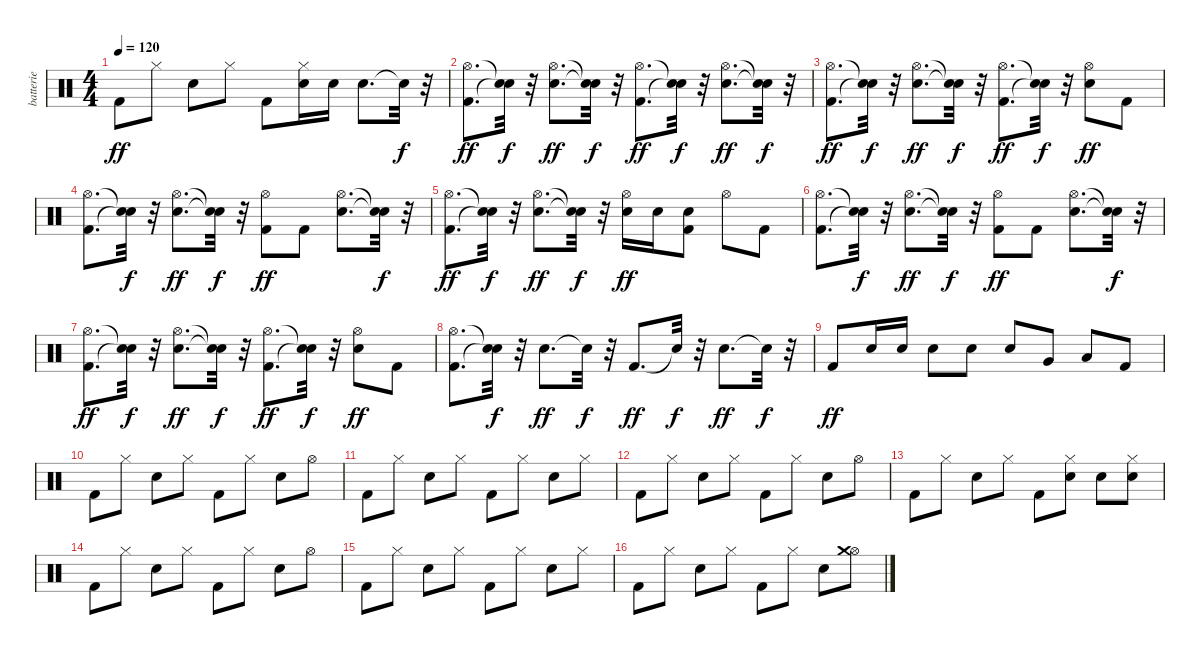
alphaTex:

\track ("batterie" "batterie") {instrument percussion}
\staff {score}
\articulation defaults
\ts (4 4)
\tempo 120
\clef neutral
\ks c "Kick (hit) 2".8{dy ff} "Hi-Hat (closed)".8 "Electric Snare (hit)".8 "Hi-Hat (closed)".8 "Kick (hit) 2".8
("Electric Snare (hit)" "Hi-Hat (closed)").16 "Electric Snare (hit)".16 "Electric Snare (hit)".8{d} "Snare (hit)"{t}.32{dy f} r.32 |
("Kick (hit) 2" "Hi-Hat (open)").8{d dy ff} ("Snare (hit)"{t} "Snare (hit)"{t}).32{dy f} r.32 ("Electric Snare (hit)" "Hi-Hat (open)").8{d dy ff} ("Snare (hit)"{t} "Snare (hit)"{t}).32{dy f} r.32 ("Kick (hit) 2" "Hi-Hat (open)").8{d dy ff} ("Snare (hit)"{t} "Snare (hit)"{t}).32{dy f} r.32 ("Electric Snare (hit)" "Hi-Hat (open)").8{d dy ff} ("Snare (hit)"{t} "Snare (hit)"{t}).32{dy f} r.32 |
("Kick (hit) 2" "Hi-Hat (open)").8{d dy ff} ("Snare (hit)"{t} "Snare (hit)"{t}).32{dy f} r.32 ("Electric Snare (hit)" "Hi-Hat (open)").8{d dy ff} ("Snare (hit)"{t} "Snare (hit)"{t}).32{dy f} r.32 ("Kick (hit) 2" "Hi-Hat (open)").8{d dy ff} ("Snare (hit)"{t} "Snare (hit)"{t}).32{dy f} r.32 ("Electric Snare (hit)" "Hi-Hat (open)").8{dy ff} "Kick (hit) 2".8 |
("Kick (hit) 2" "Hi-Hat (open)").8{d} ("Snare (hit)"{t} "Snare (hit)"{t}).32{dy f} r.32 ("Electric Snare (hit)" "Hi-Hat (open)").8{d dy ff} ("Snare (hit)"{t} "Snare (hit)"{t}).32{dy f} r.32 ("Kick (hit) 2" "Hi-Hat (open)").8{dy ff} "Kick (hit) 2".8 ("Electric Snare (hit)" "Hi-Hat (open)").8{d} ("Snare (hit)"{t} "Snare (hit)"{t}).32{dy f} r.32 |
("Kick (hit) 2" "Hi-Hat (open)").8{d dy ff} ("Snare (hit)"{t} "Snare (hit)"{t}).32{dy f} r.32 ("Electric Snare (hit)" "Hi-Hat (open)").8{d dy ff} ("Snare (hit)"{t} "Snare (hit)"{t}).32{dy f} r.32 ("Electric Snare (hit)" "Hi-Hat (open)").16{dy ff} "Electric Snare (hit)".16 ("Kick (hit) 2" "Electric Snare (hit)").8 "Hi-Hat (open)".8 "Kick (hit) 2".8 |
("Kick (hit) 2" "Hi-Hat (open)").8{d} ("Snare (hit)"{t} "Snare (hit)"{t}).32{dy f} r.32 ("Electric Snare (hit)" "Hi-Hat (open)").8{d dy ff} ("Snare (hit)"{t} "Snare (hit)"{t}).32{dy f} r.32 ("Kick (hit) 2" "Hi-Hat (open)").8{dy ff} "Kick (hit) 2".8 ("Electric Snare (hit)" "Hi-Hat (open)").8{d} ("Snare (hit)"{t} "Snare (hit)"{t}).32{dy f} r.32 |
("Kick (hit) 2" "Hi-Hat (open)").8{d dy ff} ("Snare (hit)"{t} "Snare (hit)"{t}).32{dy f} r.32 ("Electric Snare (hit)" "Hi-Hat (open)").8{d dy ff} ("Snare (hit)"{t} "Snare (hit)"{t}).32{dy f} r.32 ("Kick (hit) 2" "Hi-Hat (open)").8{d dy ff} ("Snare (hit)"{t} "Snare (hit)"{t}).32{dy f} r.32 ("Electric Snare (hit)" "Hi-Hat (open)").8{dy ff} "Kick (hit) 2".8 |
("Kick (hit) 2" "Hi-Hat (open)").8{d} ("Snare (hit)"{t} "Snare (hit)"{t}).32{dy f} r.32 "Electric Snare (hit)".8{d dy ff} "Snare (hit)"{t}.32{dy f} r.32 "Kick (hit) 2".8{d dy ff} "Snare (hit)"{t}.32{dy f} r.32 "Electric Snare (hit)".8{d dy ff} "Snare (hit)"{t}.32{dy f} r.32 |
"Kick (hit) 2".8{dy ff} "Electric Snare (hit)".16 "Electric Snare (hit)".16 "Electric Snare (hit)".8 "Electric Snare (hit)".8 "Electric Snare (hit)".8 "Very Low Tom (hit)".8 "Low Floor Tom (hit)".8 "Kick (hit) 2".8 |
"Kick (hit) 2".8 "Hi-Hat (closed)".8 "Electric Snare (hit)".8 "Hi-Hat (closed)".8 "Kick (hit) 2".8 "Hi-Hat (closed)".8 "Electric Snare (hit)".8 "Hi-Hat (open)".8 |
"Kick (hit) 2".8 "Hi-Hat (closed)".8 "Electric Snare (hit)".8 "Hi-Hat (closed)".8 "Kick (hit) 2".8 "Hi-Hat (closed)".8 "Electric Snare (hit)".8 "Hi-Hat (closed)".8 |
"Kick (hit) 2".8 "Hi-Hat (closed)".8 "Electric Snare (hit)".8 "Hi-Hat (closed)".8 "Kick (hit) 2".8 "Hi-Hat (closed)".8 "Electric Snare (hit)".8 "Hi-Hat (open)".8 |
"Kick (hit) 2".8 "Hi-Hat (closed)".8 "Electric Snare (hit)".8 "Hi-Hat (closed)".8 "Kick (hit) 2".8 ("Electric Snare (hit)" "Hi-Hat (closed)").8 "Electric Snare (hit)".8 ("Electric Snare (hit)" "Hi-Hat (closed)").8 |
"Kick (hit) 2".8 "Hi-Hat (closed)".8 "Electric Snare (hit)".8 "Hi-Hat (closed)".8 "Kick (hit) 2".8 "Hi-Hat (closed)".8 "Electric Snare (hit)".8 "Hi-Hat (open)".8 |
"Kick (hit) 2".8 "Hi-Hat (closed)".8 "Electric Snare (hit)".8 "Hi-Hat (closed)".8 "Kick (hit) 2".8 "Hi-Hat (closed)".8 "Electric Snare (hit)".8 "Hi-Hat (closed)".8 |
"Kick (hit) 2".8 "Hi-Hat (closed)".8 "Electric Snare (hit)".8 "Hi-Hat (closed)".8 "Kick (hit) 2".8 "Hi-Hat (closed)".8 "Electric Snare (hit)".8 ("Hi-Hat (open)" "Crash medium (hit)").8
